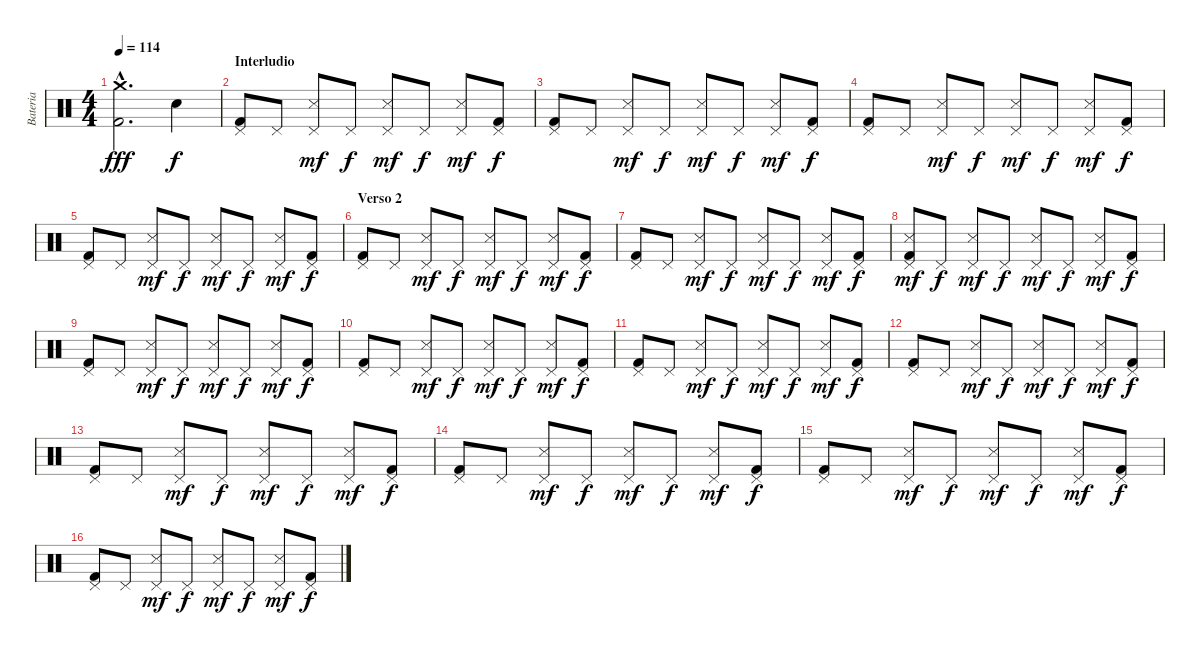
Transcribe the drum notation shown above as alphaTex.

\track ("Bateria" "Bateria") {instrument percussion}
\staff {score}
\articulation defaults
\ts (4 4)
\tempo 114
\clef neutral
\ks c
("Crash medium (hit)"{hac} "Kick (hit) 2"{hac}).2{d dy fff} "Electric Snare (hit)".4{dy f} |
\section ("" "Interludio")
("Pedal Hi-Hat (hit)" "Kick (hit) 2").8 "Pedal Hi-Hat (hit)".8 ("Pedal Hi-Hat (hit)" "Snare (side stick) 3").8{dy mf} "Pedal Hi-Hat (hit)".8{dy f} ("Pedal Hi-Hat (hit)" "Snare (side stick) 3").8{dy mf} "Pedal Hi-Hat (hit)".8{dy f} ("Pedal Hi-Hat (hit)" "Snare (side stick) 3").8{dy mf} ("Pedal Hi-Hat (hit)" "Kick (hit) 2").8{dy f} |
("Pedal Hi-Hat (hit)" "Kick (hit) 2").8 "Pedal Hi-Hat (hit)".8 ("Pedal Hi-Hat (hit)" "Snare (side stick) 3").8{dy mf} "Pedal Hi-Hat (hit)".8{dy f} ("Pedal Hi-Hat (hit)" "Snare (side stick) 3").8{dy mf} "Pedal Hi-Hat (hit)".8{dy f} ("Pedal Hi-Hat (hit)" "Snare (side stick) 3").8{dy mf} ("Pedal Hi-Hat (hit)" "Kick (hit) 2").8{dy f} |
("Pedal Hi-Hat (hit)" "Kick (hit) 2").8 "Pedal Hi-Hat (hit)".8 ("Pedal Hi-Hat (hit)" "Snare (side stick) 3").8{dy mf} "Pedal Hi-Hat (hit)".8{dy f} ("Pedal Hi-Hat (hit)" "Snare (side stick) 3").8{dy mf} "Pedal Hi-Hat (hit)".8{dy f} ("Pedal Hi-Hat (hit)" "Snare (side stick) 3").8{dy mf} ("Pedal Hi-Hat (hit)" "Kick (hit) 2").8{dy f} |
("Pedal Hi-Hat (hit)" "Kick (hit) 2").8 "Pedal Hi-Hat (hit)".8 ("Pedal Hi-Hat (hit)" "Snare (side stick) 3").8{dy mf} "Pedal Hi-Hat (hit)".8{dy f} ("Pedal Hi-Hat (hit)" "Snare (side stick) 3").8{dy mf} "Pedal Hi-Hat (hit)".8{dy f} ("Pedal Hi-Hat (hit)" "Snare (side stick) 3").8{dy mf} ("Pedal Hi-Hat (hit)" "Kick (hit) 2").8{dy f} |
\section ("" "Verso 2")
("Pedal Hi-Hat (hit)" "Kick (hit) 2").8 "Pedal Hi-Hat (hit)".8 ("Pedal Hi-Hat (hit)" "Snare (side stick) 3").8{dy mf} "Pedal Hi-Hat (hit)".8{dy f} ("Pedal Hi-Hat (hit)" "Snare (side stick) 3").8{dy mf} "Pedal Hi-Hat (hit)".8{dy f} ("Pedal Hi-Hat (hit)" "Snare (side stick) 3").8{dy mf} ("Pedal Hi-Hat (hit)" "Kick (hit) 2").8{dy f} |
("Pedal Hi-Hat (hit)" "Kick (hit) 2").8 "Pedal Hi-Hat (hit)".8 ("Pedal Hi-Hat (hit)" "Snare (side stick) 3").8{dy mf} "Pedal Hi-Hat (hit)".8{dy f} ("Pedal Hi-Hat (hit)" "Snare (side stick) 3").8{dy mf} "Pedal Hi-Hat (hit)".8{dy f} ("Pedal Hi-Hat (hit)" "Snare (side stick) 3").8{dy mf} ("Pedal Hi-Hat (hit)" "Kick (hit) 2").8{dy f} |
("Pedal Hi-Hat (hit)" "Snare (side stick) 3" "Kick (hit) 2").8{dy mf} "Pedal Hi-Hat (hit)".8{dy f} ("Pedal Hi-Hat (hit)" "Snare (side stick) 3").8{dy mf} "Pedal Hi-Hat (hit)".8{dy f} ("Pedal Hi-Hat (hit)" "Snare (side stick) 3").8{dy mf} "Pedal Hi-Hat (hit)".8{dy f} ("Pedal Hi-Hat (hit)" "Snare (side stick) 3").8{dy mf} ("Pedal Hi-Hat (hit)" "Kick (hit) 2").8{dy f} |
("Pedal Hi-Hat (hit)" "Kick (hit) 2").8 "Pedal Hi-Hat (hit)".8 ("Pedal Hi-Hat (hit)" "Snare (side stick) 3").8{dy mf} "Pedal Hi-Hat (hit)".8{dy f} ("Pedal Hi-Hat (hit)" "Snare (side stick) 3").8{dy mf} "Pedal Hi-Hat (hit)".8{dy f} ("Pedal Hi-Hat (hit)" "Snare (side stick) 3").8{dy mf} ("Pedal Hi-Hat (hit)" "Kick (hit) 2").8{dy f} |
("Pedal Hi-Hat (hit)" "Kick (hit) 2").8 "Pedal Hi-Hat (hit)".8 ("Pedal Hi-Hat (hit)" "Snare (side stick) 3").8{dy mf} "Pedal Hi-Hat (hit)".8{dy f} ("Pedal Hi-Hat (hit)" "Snare (side stick) 3").8{dy mf} "Pedal Hi-Hat (hit)".8{dy f} ("Pedal Hi-Hat (hit)" "Snare (side stick) 3").8{dy mf} ("Pedal Hi-Hat (hit)" "Kick (hit) 2").8{dy f} |
("Pedal Hi-Hat (hit)" "Kick (hit) 2").8 "Pedal Hi-Hat (hit)".8 ("Pedal Hi-Hat (hit)" "Snare (side stick) 3").8{dy mf} "Pedal Hi-Hat (hit)".8{dy f} ("Pedal Hi-Hat (hit)" "Snare (side stick) 3").8{dy mf} "Pedal Hi-Hat (hit)".8{dy f} ("Pedal Hi-Hat (hit)" "Snare (side stick) 3").8{dy mf} ("Pedal Hi-Hat (hit)" "Kick (hit) 2").8{dy f} |
("Pedal Hi-Hat (hit)" "Kick (hit) 2").8 "Pedal Hi-Hat (hit)".8 ("Pedal Hi-Hat (hit)" "Snare (side stick) 3").8{dy mf} "Pedal Hi-Hat (hit)".8{dy f} ("Pedal Hi-Hat (hit)" "Snare (side stick) 3").8{dy mf} "Pedal Hi-Hat (hit)".8{dy f} ("Pedal Hi-Hat (hit)" "Snare (side stick) 3").8{dy mf} ("Pedal Hi-Hat (hit)" "Kick (hit) 2").8{dy f} |
("Pedal Hi-Hat (hit)" "Kick (hit) 2").8 "Pedal Hi-Hat (hit)".8 ("Pedal Hi-Hat (hit)" "Snare (side stick) 3").8{dy mf} "Pedal Hi-Hat (hit)".8{dy f} ("Pedal Hi-Hat (hit)" "Snare (side stick) 3").8{dy mf} "Pedal Hi-Hat (hit)".8{dy f} ("Pedal Hi-Hat (hit)" "Snare (side stick) 3").8{dy mf} ("Pedal Hi-Hat (hit)" "Kick (hit) 2").8{dy f} |
("Pedal Hi-Hat (hit)" "Kick (hit) 2").8 "Pedal Hi-Hat (hit)".8 ("Pedal Hi-Hat (hit)" "Snare (side stick) 3").8{dy mf} "Pedal Hi-Hat (hit)".8{dy f} ("Pedal Hi-Hat (hit)" "Snare (side stick) 3").8{dy mf} "Pedal Hi-Hat (hit)".8{dy f} ("Pedal Hi-Hat (hit)" "Snare (side stick) 3").8{dy mf} ("Pedal Hi-Hat (hit)" "Kick (hit) 2").8{dy f} |
("Pedal Hi-Hat (hit)" "Kick (hit) 2").8 "Pedal Hi-Hat (hit)".8 ("Pedal Hi-Hat (hit)" "Snare (side stick) 3").8{dy mf} "Pedal Hi-Hat (hit)".8{dy f} ("Pedal Hi-Hat (hit)" "Snare (side stick) 3").8{dy mf} "Pedal Hi-Hat (hit)".8{dy f} ("Pedal Hi-Hat (hit)" "Snare (side stick) 3").8{dy mf} ("Pedal Hi-Hat (hit)" "Kick (hit) 2").8{dy f} |
("Pedal Hi-Hat (hit)" "Kick (hit) 2").8 "Pedal Hi-Hat (hit)".8 ("Pedal Hi-Hat (hit)" "Snare (side stick) 3").8{dy mf} "Pedal Hi-Hat (hit)".8{dy f} ("Pedal Hi-Hat (hit)" "Snare (side stick) 3").8{dy mf} "Pedal Hi-Hat (hit)".8{dy f} ("Pedal Hi-Hat (hit)" "Snare (side stick) 3").8{dy mf} ("Pedal Hi-Hat (hit)" "Kick (hit) 2").8{dy f}
